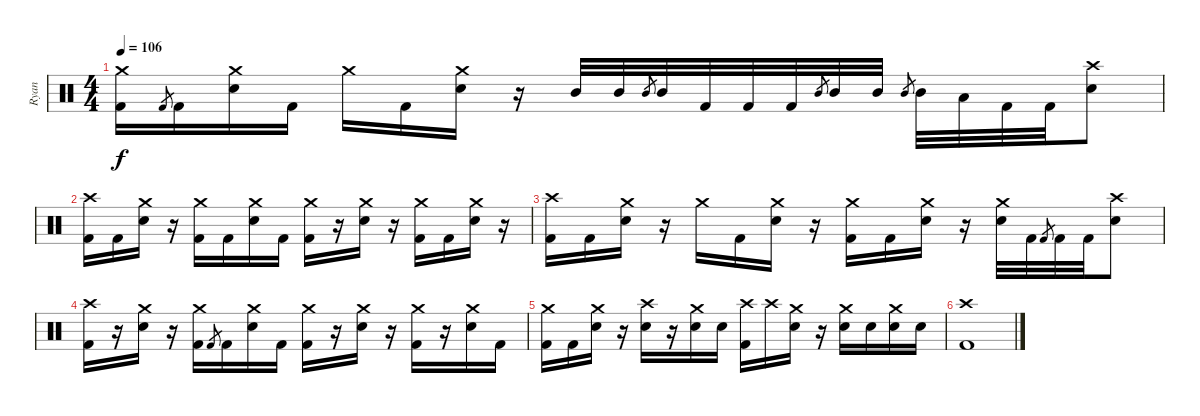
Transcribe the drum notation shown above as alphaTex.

\track ("Ryan" "Ryan") {instrument percussion}
\staff {score}
\articulation defaults
\ts (4 4)
\tempo 106
\clef neutral
\ks c
("Crash medium (hit)" "Kick (hit) 2").16{dy f} "Kick (hit) 2".8{gr} "Kick (hit) 2".16 ("Crash medium (hit)" "Electric Snare (hit)").16 "Kick (hit) 2".16 "Crash medium (hit)".16 "Kick (hit) 2".16 ("Crash medium (hit)" "Electric Snare (hit)").16 r.16 "Mid Tom (hit)".32 "Mid Tom (hit)".32 "Mid Tom (hit)".8{gr} "Mid Tom (hit)".32 "Kick (hit) 2".32 "Kick (hit) 2".32 "Kick (hit) 2".32 "Mid Tom (hit)".8{gr} "Mid Tom (hit)".32 "Mid Tom (hit)".32 "Mid Tom (hit)".8{gr} "Mid Tom (hit)".32 "Low Tom (hit)".32 "Kick (hit) 2".32 "Kick (hit) 2".32 ("Crash high (hit)" "Electric Snare (hit)").8 |
("Crash high (hit)" "Kick (hit) 2").16 "Kick (hit) 2".16 ("Crash medium (hit)" "Electric Snare (hit)").16 r.16 ("Crash medium (hit)" "Kick (hit) 2").16 "Kick (hit) 2".16 ("Crash medium (hit)" "Electric Snare (hit)").16 "Kick (hit) 2".16 ("Crash medium (hit)" "Kick (hit) 2").16 r.16 ("Crash medium (hit)" "Electric Snare (hit)").16 r.16 ("Crash medium (hit)" "Kick (hit) 2").16 "Kick (hit) 2".16 ("Crash medium (hit)" "Electric Snare (hit)").16 r.16 |
("Crash high (hit)" "Kick (hit) 2").16 "Kick (hit) 2".16 ("Crash medium (hit)" "Electric Snare (hit)").16 r.16 "Crash medium (hit)".16 "Kick (hit) 2".16 ("Crash medium (hit)" "Electric Snare (hit)").16 r.16 ("Crash medium (hit)" "Kick (hit) 2").16 "Kick (hit) 2".16 ("Crash medium (hit)" "Electric Snare (hit)").16 r.16 ("Crash medium (hit)" "Electric Snare (hit)").32 "Kick (hit) 2".32 "Kick (hit) 2".8{gr} "Kick (hit) 2".32 "Kick (hit) 2".32 ("Crash high (hit)" "Electric Snare (hit)").8 |
("Crash high (hit)" "Kick (hit) 2").16 r.16 ("Crash medium (hit)" "Electric Snare (hit)").16 r.16 ("Crash medium (hit)" "Kick (hit) 2").16 "Kick (hit) 2".8{gr} "Kick (hit) 2".16 ("Crash medium (hit)" "Electric Snare (hit)").16 "Kick (hit) 2".16 ("Crash medium (hit)" "Kick (hit) 2").16 r.16 ("Crash medium (hit)" "Electric Snare (hit)").16 r.16 ("Crash medium (hit)" "Kick (hit) 2").16 r.16 ("Crash medium (hit)" "Electric Snare (hit)").16 "Kick (hit) 2".16 |
("Crash medium (hit)" "Kick (hit) 2").16 "Kick (hit) 2".16 ("Crash medium (hit)" "Electric Snare (hit)").16 r.16 ("Crash high (hit)" "Electric Snare (hit)").16 r.16 ("Crash medium (hit)" "Electric Snare (hit)").16 "Electric Snare (hit)".16 ("Crash high (hit)" "Kick (hit) 2").16 "Crash high (hit)".16 ("Crash medium (hit)" "Electric Snare (hit)").16 r.16 ("Crash medium (hit)" "Electric Snare (hit)").16 "Electric Snare (hit)".16 ("Crash medium (hit)" "Electric Snare (hit)").16 "Electric Snare (hit)".16 |
("Crash high (hit)" "Kick (hit) 2").1
